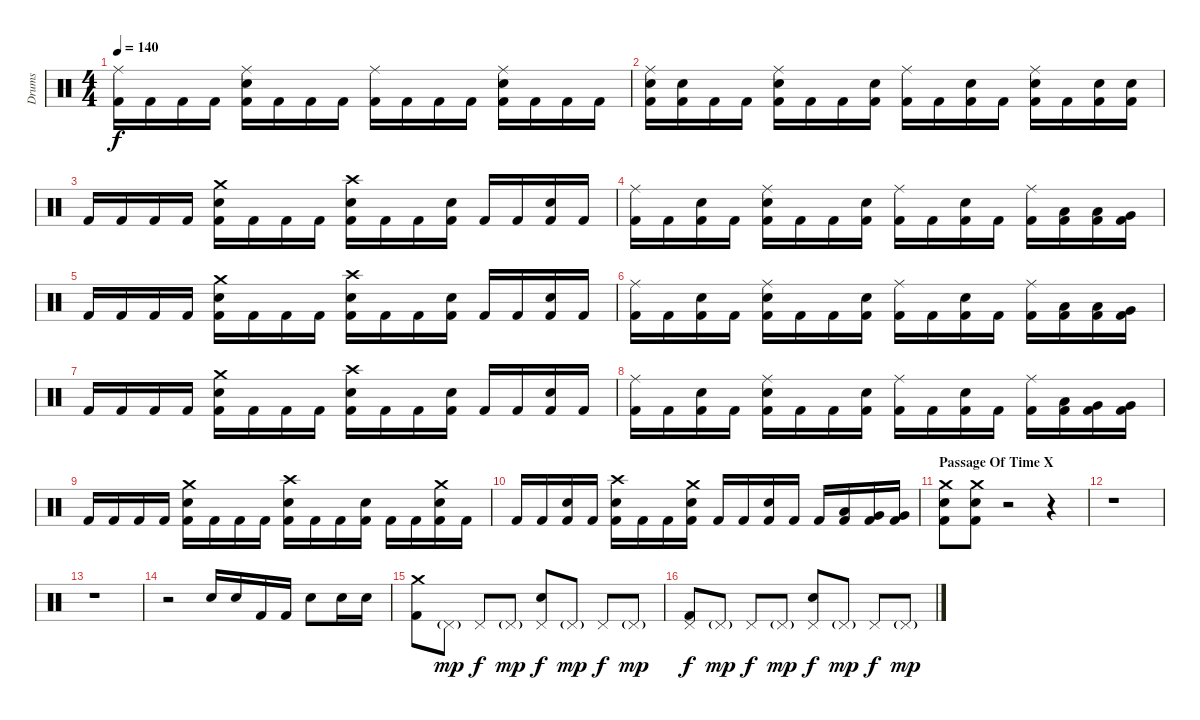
\track ("Drums" "Drums") {instrument percussion}
\staff {score}
\articulation defaults
\ts (4 4)
\tempo 140
\clef neutral
\ks c
("Ride (middle)" "Kick (hit) 2").16{dy f} "Kick (hit) 2".16 "Kick (hit) 2".16 "Kick (hit) 2".16 ("Ride (middle)" "Electric Snare (hit)" "Kick (hit) 2").16 "Kick (hit) 2".16 "Kick (hit) 2".16 "Kick (hit) 2".16 ("Ride (middle)" "Kick (hit) 2").16 "Kick (hit) 2".16 "Kick (hit) 2".16 "Kick (hit) 2".16 ("Ride (middle)" "Electric Snare (hit)" "Kick (hit) 2").16 "Kick (hit) 2".16 "Kick (hit) 2".16 "Kick (hit) 2".16 |
("Ride (middle)" "Electric Snare (hit)" "Kick (hit) 2").16 ("Electric Snare (hit)" "Kick (hit) 2").16 "Kick (hit) 2".16 "Kick (hit) 2".16 ("Ride (middle)" "Electric Snare (hit)" "Kick (hit) 2").16 "Kick (hit) 2".16 "Kick (hit) 2".16 ("Electric Snare (hit)" "Kick (hit) 2").16 ("Ride (middle)" "Kick (hit) 2").16 "Kick (hit) 2".16 ("Electric Snare (hit)" "Kick (hit) 2").16 "Kick (hit) 2".16 ("Ride (middle)" "Electric Snare (hit)" "Kick (hit) 2").16 "Kick (hit) 2".16 ("Electric Snare (hit)" "Kick (hit) 2").16 ("Electric Snare (hit)" "Kick (hit) 2").16 |
"Kick (hit) 2".16 "Kick (hit) 2".16 "Kick (hit) 2".16 "Kick (hit) 2".16 ("Crash medium (hit)" "Electric Snare (hit)" "Kick (hit) 2").16 "Kick (hit) 2".16 "Kick (hit) 2".16 "Kick (hit) 2".16 ("Crash high (hit)" "Electric Snare (hit)" "Kick (hit) 2").16 "Kick (hit) 2".16 "Kick (hit) 2".16 ("Electric Snare (hit)" "Kick (hit) 2").16 "Kick (hit) 2".16 "Kick (hit) 2".16 ("Electric Snare (hit)" "Kick (hit) 2").16 "Kick (hit) 2".16 |
("Ride (middle)" "Kick (hit) 2").16 "Kick (hit) 2".16 ("Electric Snare (hit)" "Kick (hit) 2").16 "Kick (hit) 2".16 ("Ride (middle)" "Electric Snare (hit)" "Kick (hit) 2").16 "Kick (hit) 2".16 "Kick (hit) 2".16 ("Electric Snare (hit)" "Kick (hit) 2").16 ("Ride (middle)" "Kick (hit) 2").16 "Kick (hit) 2".16 ("Electric Snare (hit)" "Kick (hit) 2").16 "Kick (hit) 2".16 ("Ride (middle)" "Kick (hit) 2").16 ("Low Tom (hit)" "Kick (hit) 2").16 ("Low Tom (hit)" "Kick (hit) 2").16 ("Very Low Tom (hit)" "Kick (hit) 2").16 |
"Kick (hit) 2".16 "Kick (hit) 2".16 "Kick (hit) 2".16 "Kick (hit) 2".16 ("Crash medium (hit)" "Electric Snare (hit)" "Kick (hit) 2").16 "Kick (hit) 2".16 "Kick (hit) 2".16 "Kick (hit) 2".16 ("Crash high (hit)" "Electric Snare (hit)" "Kick (hit) 2").16 "Kick (hit) 2".16 "Kick (hit) 2".16 ("Electric Snare (hit)" "Kick (hit) 2").16 "Kick (hit) 2".16 "Kick (hit) 2".16 ("Electric Snare (hit)" "Kick (hit) 2").16 "Kick (hit) 2".16 |
("Ride (middle)" "Kick (hit) 2").16 "Kick (hit) 2".16 ("Electric Snare (hit)" "Kick (hit) 2").16 "Kick (hit) 2".16 ("Ride (middle)" "Electric Snare (hit)" "Kick (hit) 2").16 "Kick (hit) 2".16 "Kick (hit) 2".16 ("Electric Snare (hit)" "Kick (hit) 2").16 ("Ride (middle)" "Kick (hit) 2").16 "Kick (hit) 2".16 ("Electric Snare (hit)" "Kick (hit) 2").16 "Kick (hit) 2".16 ("Ride (middle)" "Kick (hit) 2").16 ("Low Tom (hit)" "Kick (hit) 2").16 ("Low Tom (hit)" "Kick (hit) 2").16 ("Very Low Tom (hit)" "Kick (hit) 2").16 |
"Kick (hit) 2".16 "Kick (hit) 2".16 "Kick (hit) 2".16 "Kick (hit) 2".16 ("Crash medium (hit)" "Electric Snare (hit)" "Kick (hit) 2").16 "Kick (hit) 2".16 "Kick (hit) 2".16 "Kick (hit) 2".16 ("Crash high (hit)" "Electric Snare (hit)" "Kick (hit) 2").16 "Kick (hit) 2".16 "Kick (hit) 2".16 ("Electric Snare (hit)" "Kick (hit) 2").16 "Kick (hit) 2".16 "Kick (hit) 2".16 ("Electric Snare (hit)" "Kick (hit) 2").16 "Kick (hit) 2".16 |
("Ride (middle)" "Kick (hit) 2").16 "Kick (hit) 2".16 ("Electric Snare (hit)" "Kick (hit) 2").16 "Kick (hit) 2".16 ("Ride (middle)" "Electric Snare (hit)" "Kick (hit) 2").16 "Kick (hit) 2".16 "Kick (hit) 2".16 ("Electric Snare (hit)" "Kick (hit) 2").16 ("Ride (middle)" "Kick (hit) 2").16 "Kick (hit) 2".16 ("Electric Snare (hit)" "Kick (hit) 2").16 "Kick (hit) 2".16 ("Ride (middle)" "Kick (hit) 2").16 ("Low Tom (hit)" "Kick (hit) 2").16 ("Very Low Tom (hit)" "Kick (hit) 2").16 ("Very Low Tom (hit)" "Kick (hit) 2").16 |
"Kick (hit) 2".16 "Kick (hit) 2".16 "Kick (hit) 2".16 "Kick (hit) 2".16 ("Crash medium (hit)" "Electric Snare (hit)" "Kick (hit) 2").16 "Kick (hit) 2".16 "Kick (hit) 2".16 "Kick (hit) 2".16 ("Crash high (hit)" "Electric Snare (hit)" "Kick (hit) 2").16 "Kick (hit) 2".16 "Kick (hit) 2".16 ("Electric Snare (hit)" "Kick (hit) 2").16 "Kick (hit) 2".16 "Kick (hit) 2".16 ("Crash medium (hit)" "Electric Snare (hit)" "Kick (hit) 2").16 "Kick (hit) 2".16 |
"Kick (hit) 2".16 "Kick (hit) 2".16 ("Electric Snare (hit)" "Kick (hit) 2").16 "Kick (hit) 2".16 ("Crash high (hit)" "Electric Snare (hit)" "Kick (hit) 2").16 "Kick (hit) 2".16 "Kick (hit) 2".16 ("Crash medium (hit)" "Electric Snare (hit)" "Kick (hit) 2").16 "Kick (hit) 2".16 "Kick (hit) 2".16 ("Electric Snare (hit)" "Kick (hit) 2").16 "Kick (hit) 2".16 "Kick (hit) 2".16 ("Low Tom (hit)" "Kick (hit) 2").16 ("Very Low Tom (hit)" "Kick (hit) 2").16 ("Very Low Tom (hit)" "Kick (hit) 2").16 |
\section ("" "Passage Of Time X")
("Crash medium (hit)" "Electric Snare (hit)" "Kick (hit) 2").8 ("Crash medium (hit)" "Electric Snare (hit)" "Kick (hit) 2").8 r.2 r.4 |
r.1 |
r.1 |
r.2 "Electric Snare (hit)".16 "Electric Snare (hit)".16 "Kick (hit) 2".16 "Kick (hit) 2".16 "Electric Snare (hit)".8 "Electric Snare (hit)".16 "Electric Snare (hit)".16 |
("Crash medium (hit)" "Kick (hit) 2").8 "Pedal Hi-Hat (hit)"{g}.8{dy mp} "Pedal Hi-Hat (hit)".8{dy f} "Pedal Hi-Hat (hit)"{g}.8{dy mp} ("Pedal Hi-Hat (hit)" "Electric Snare (hit)").8{dy f} "Pedal Hi-Hat (hit)"{g}.8{dy mp} "Pedal Hi-Hat (hit)".8{dy f} "Pedal Hi-Hat (hit)"{g}.8{dy mp} |
("Pedal Hi-Hat (hit)" "Kick (hit) 2").8{dy f} "Pedal Hi-Hat (hit)"{g}.8{dy mp} "Pedal Hi-Hat (hit)".8{dy f} "Pedal Hi-Hat (hit)"{g}.8{dy mp} ("Pedal Hi-Hat (hit)" "Electric Snare (hit)").8{dy f} "Pedal Hi-Hat (hit)"{g}.8{dy mp} "Pedal Hi-Hat (hit)".8{dy f} "Pedal Hi-Hat (hit)"{g}.8{dy mp}
